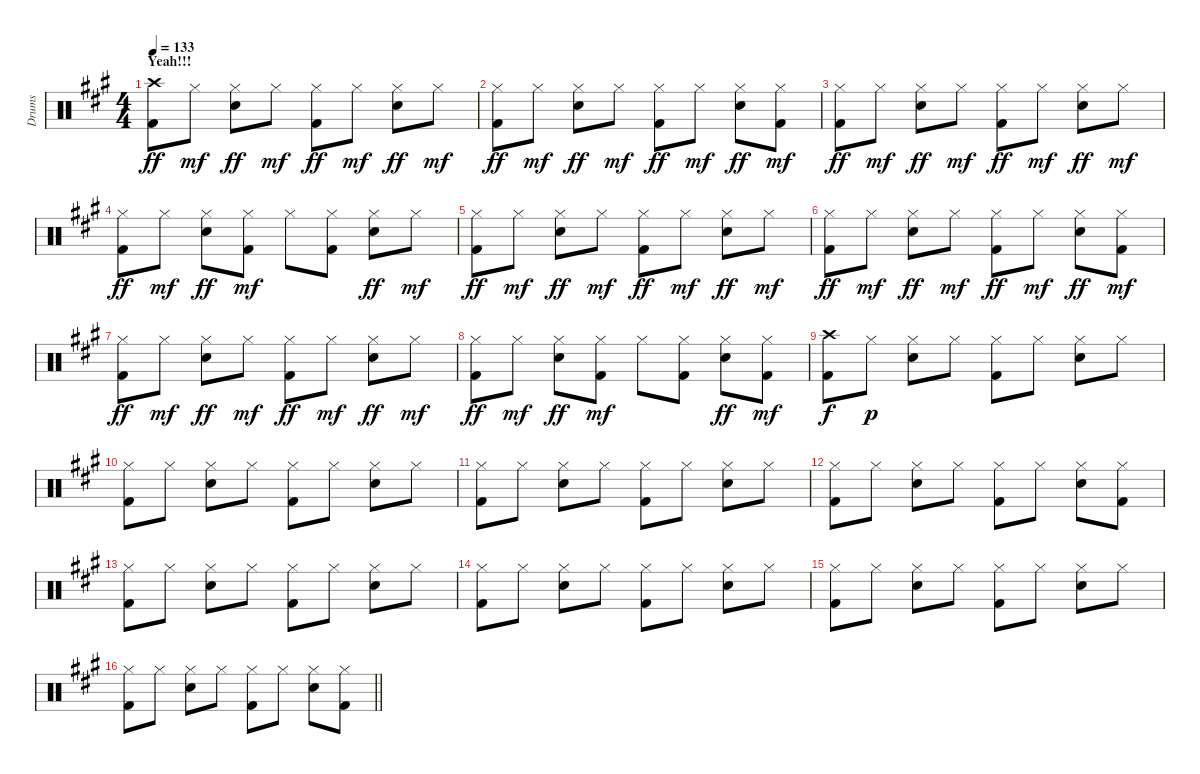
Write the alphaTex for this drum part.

\track ("Drums" "Drums") {instrument percussion}
\staff {score}
\articulation defaults
\ts (4 4)
\section ("" "Yeah!!!")
\tempo 133
\clef neutral
\ks a
("Crash high (hit)" "Kick (hit) 2").8{dy ff} "Hi-Hat (closed)".8{dy mf} ("Hi-Hat (closed)" "Snare (hit) 2").8{dy ff} "Hi-Hat (closed)".8{dy mf} ("Hi-Hat (closed)" "Kick (hit) 2").8{dy ff} "Hi-Hat (closed)".8{dy mf} ("Hi-Hat (closed)" "Snare (hit) 2").8{dy ff} "Hi-Hat (closed)".8{dy mf} |
("Hi-Hat (closed)" "Kick (hit) 2").8{dy ff} "Hi-Hat (closed)".8{dy mf} ("Hi-Hat (closed)" "Snare (hit) 2").8{dy ff} "Hi-Hat (closed)".8{dy mf} ("Hi-Hat (closed)" "Kick (hit) 2").8{dy ff} "Hi-Hat (closed)".8{dy mf} ("Hi-Hat (closed)" "Snare (hit) 2").8{dy ff} ("Hi-Hat (closed)" "Kick (hit) 2").8{dy mf} |
("Hi-Hat (closed)" "Kick (hit) 2").8{dy ff} "Hi-Hat (closed)".8{dy mf} ("Hi-Hat (closed)" "Snare (hit) 2").8{dy ff} "Hi-Hat (closed)".8{dy mf} ("Hi-Hat (closed)" "Kick (hit) 2").8{dy ff} "Hi-Hat (closed)".8{dy mf} ("Hi-Hat (closed)" "Snare (hit) 2").8{dy ff} "Hi-Hat (closed)".8{dy mf} |
("Hi-Hat (closed)" "Kick (hit) 2").8{dy ff} "Hi-Hat (closed)".8{dy mf} ("Hi-Hat (closed)" "Snare (hit) 2").8{dy ff} ("Hi-Hat (closed)" "Kick (hit) 2").8{dy mf} "Hi-Hat (closed)".8 ("Hi-Hat (closed)" "Kick (hit) 2").8 ("Hi-Hat (closed)" "Snare (hit) 2").8{dy ff} "Hi-Hat (closed)".8{dy mf} |
("Hi-Hat (closed)" "Kick (hit) 2").8{dy ff} "Hi-Hat (closed)".8{dy mf} ("Hi-Hat (closed)" "Snare (hit) 2").8{dy ff} "Hi-Hat (closed)".8{dy mf} ("Hi-Hat (closed)" "Kick (hit) 2").8{dy ff} "Hi-Hat (closed)".8{dy mf} ("Hi-Hat (closed)" "Snare (hit) 2").8{dy ff} "Hi-Hat (closed)".8{dy mf} |
("Hi-Hat (closed)" "Kick (hit) 2").8{dy ff} "Hi-Hat (closed)".8{dy mf} ("Hi-Hat (closed)" "Snare (hit) 2").8{dy ff} "Hi-Hat (closed)".8{dy mf} ("Hi-Hat (closed)" "Kick (hit) 2").8{dy ff} "Hi-Hat (closed)".8{dy mf} ("Hi-Hat (closed)" "Snare (hit) 2").8{dy ff} ("Hi-Hat (closed)" "Kick (hit) 2").8{dy mf} |
("Hi-Hat (closed)" "Kick (hit) 2").8{dy ff} "Hi-Hat (closed)".8{dy mf} ("Hi-Hat (closed)" "Snare (hit) 2").8{dy ff} "Hi-Hat (closed)".8{dy mf} ("Hi-Hat (closed)" "Kick (hit) 2").8{dy ff} "Hi-Hat (closed)".8{dy mf} ("Hi-Hat (closed)" "Snare (hit) 2").8{dy ff} "Hi-Hat (closed)".8{dy mf} |
("Hi-Hat (closed)" "Kick (hit) 2").8{dy ff} "Hi-Hat (closed)".8{dy mf} ("Hi-Hat (closed)" "Snare (hit) 2").8{dy ff} ("Hi-Hat (closed)" "Kick (hit) 2").8{dy mf} "Hi-Hat (closed)".8 ("Hi-Hat (closed)" "Kick (hit) 2").8 ("Hi-Hat (closed)" "Snare (hit) 2").8{dy ff} ("Hi-Hat (closed)" "Kick (hit) 2").8{dy mf} |
("Crash high (hit)" "Kick (hit) 2").8{dy f} "Hi-Hat (closed)".8{dy p} ("Hi-Hat (closed)" "Snare (hit) 2").8 "Hi-Hat (closed)".8 ("Hi-Hat (closed)" "Kick (hit) 2").8 "Hi-Hat (closed)".8 ("Hi-Hat (closed)" "Snare (hit) 2").8 "Hi-Hat (closed)".8 |
("Hi-Hat (closed)" "Kick (hit) 2").8 "Hi-Hat (closed)".8 ("Hi-Hat (closed)" "Snare (hit) 2").8 "Hi-Hat (closed)".8 ("Hi-Hat (closed)" "Kick (hit) 2").8 "Hi-Hat (closed)".8 ("Hi-Hat (closed)" "Snare (hit) 2").8 "Hi-Hat (closed)".8 |
("Hi-Hat (closed)" "Kick (hit) 2").8 "Hi-Hat (closed)".8 ("Hi-Hat (closed)" "Snare (hit) 2").8 "Hi-Hat (closed)".8 ("Hi-Hat (closed)" "Kick (hit) 2").8 "Hi-Hat (closed)".8 ("Hi-Hat (closed)" "Snare (hit) 2").8 "Hi-Hat (closed)".8 |
("Hi-Hat (closed)" "Kick (hit) 2").8 "Hi-Hat (closed)".8 ("Hi-Hat (closed)" "Snare (hit) 2").8 "Hi-Hat (closed)".8 ("Hi-Hat (closed)" "Kick (hit) 2").8 "Hi-Hat (closed)".8 ("Hi-Hat (closed)" "Snare (hit) 2").8 ("Hi-Hat (closed)" "Kick (hit) 2").8 |
("Hi-Hat (closed)" "Kick (hit) 2").8 "Hi-Hat (closed)".8 ("Hi-Hat (closed)" "Snare (hit) 2").8 "Hi-Hat (closed)".8 ("Hi-Hat (closed)" "Kick (hit) 2").8 "Hi-Hat (closed)".8 ("Hi-Hat (closed)" "Snare (hit) 2").8 "Hi-Hat (closed)".8 |
("Hi-Hat (closed)" "Kick (hit) 2").8 "Hi-Hat (closed)".8 ("Hi-Hat (closed)" "Snare (hit) 2").8 "Hi-Hat (closed)".8 ("Hi-Hat (closed)" "Kick (hit) 2").8 "Hi-Hat (closed)".8 ("Hi-Hat (closed)" "Snare (hit) 2").8 "Hi-Hat (closed)".8 |
("Hi-Hat (closed)" "Kick (hit) 2").8 "Hi-Hat (closed)".8 ("Hi-Hat (closed)" "Snare (hit) 2").8 "Hi-Hat (closed)".8 ("Hi-Hat (closed)" "Kick (hit) 2").8 "Hi-Hat (closed)".8 ("Hi-Hat (closed)" "Snare (hit) 2").8 "Hi-Hat (closed)".8 |
\barLineRight lightlight
("Hi-Hat (closed)" "Kick (hit) 2").8 "Hi-Hat (closed)".8 ("Hi-Hat (closed)" "Snare (hit) 2").8 "Hi-Hat (closed)".8 ("Hi-Hat (closed)" "Kick (hit) 2").8 "Hi-Hat (closed)".8 ("Hi-Hat (closed)" "Snare (hit) 2").8 ("Hi-Hat (closed)" "Kick (hit) 2").8
